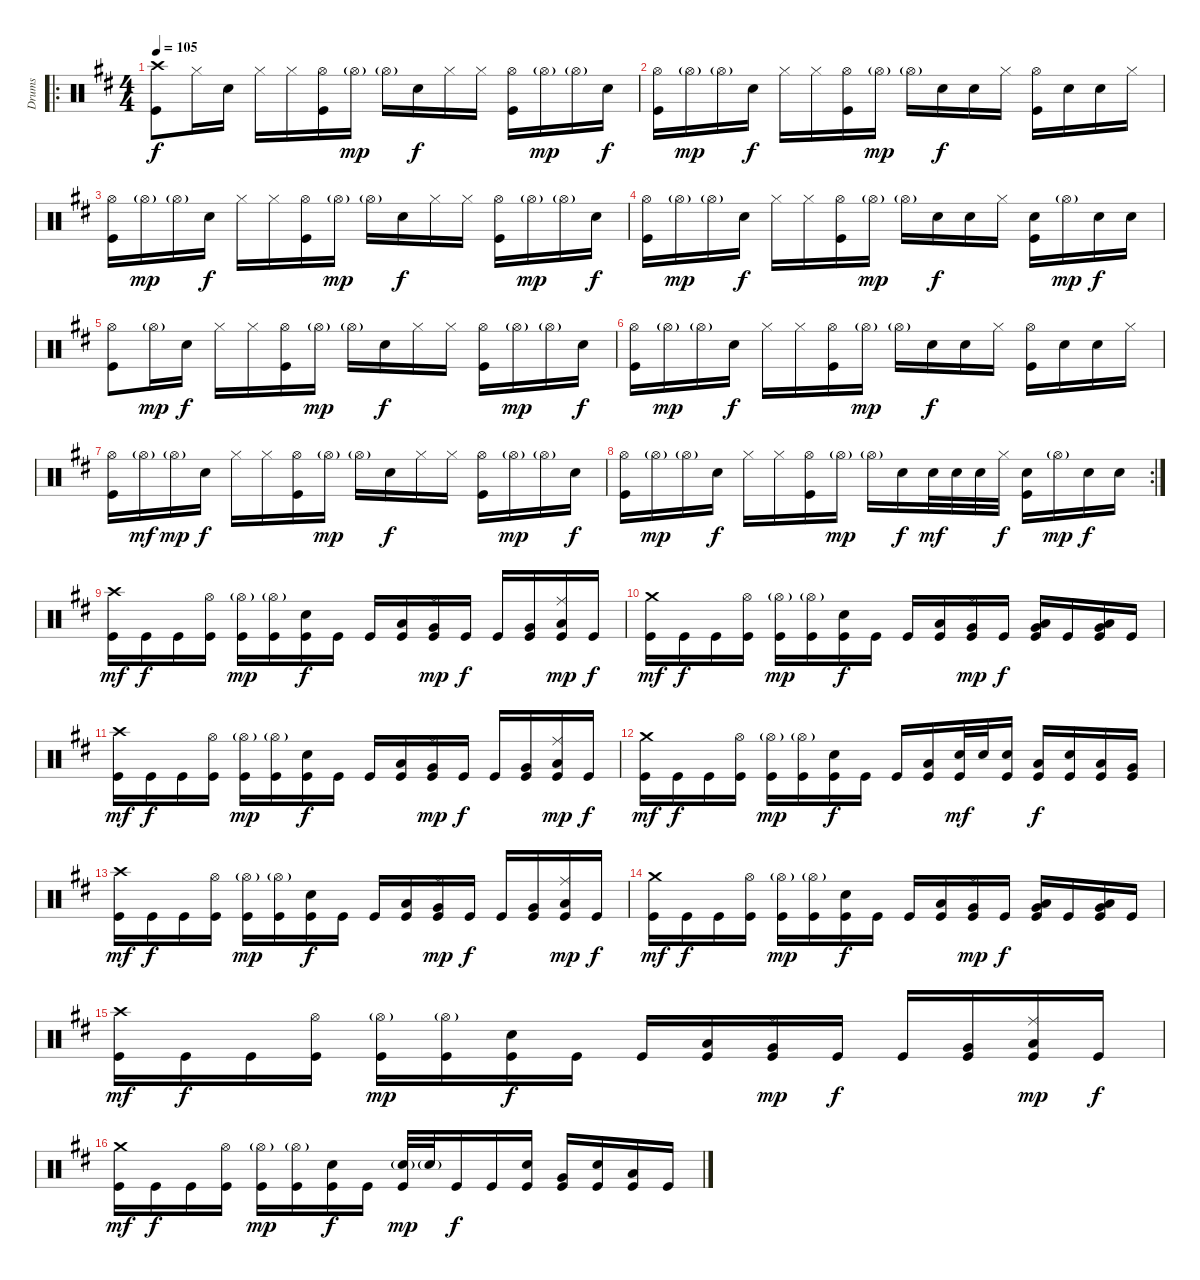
\track ("Drums" "Drums") {instrument percussion}
\staff {score}
\articulation defaults
\ro
\ts (4 4)
\tempo 105
\clef neutral
\ks d
("Crash high (hit)" "Kick (hit)").8{dy f} "Hi-Hat (closed)".16 "Electric Snare (hit)".16 "Hi-Hat (closed)".16 "Hi-Hat (closed)".16 ("Hi-Hat (open)" "Kick (hit)").16 "Hi-Hat (open)"{g}.16{dy mp} "Hi-Hat (open)"{g}.16 "Electric Snare (hit)".16{dy f} "Hi-Hat (closed)".16 "Hi-Hat (closed)".16 ("Hi-Hat (open)" "Kick (hit)").16 "Hi-Hat (open)"{g}.16{dy mp} "Hi-Hat (open)"{g}.16 "Electric Snare (hit)".16{dy f} |
("Hi-Hat (open)" "Kick (hit)").16 "Hi-Hat (open)"{g}.16{dy mp} "Hi-Hat (open)"{g}.16 "Electric Snare (hit)".16{dy f} "Hi-Hat (closed)".16 "Hi-Hat (closed)".16 ("Hi-Hat (open)" "Kick (hit)").16 "Hi-Hat (open)"{g}.16{dy mp} "Hi-Hat (open)"{g}.16 "Electric Snare (hit)".16{dy f} "Electric Snare (hit)".16 "Hi-Hat (closed)".16 ("Hi-Hat (open)" "Kick (hit)").16 "Electric Snare (hit)".16 "Electric Snare (hit)".16 "Hi-Hat (closed)".16 |
("Hi-Hat (open)" "Kick (hit)").16 "Hi-Hat (open)"{g}.16{dy mp} "Hi-Hat (open)"{g}.16 "Electric Snare (hit)".16{dy f} "Hi-Hat (closed)".16 "Hi-Hat (closed)".16 ("Hi-Hat (open)" "Kick (hit)").16 "Hi-Hat (open)"{g}.16{dy mp} "Hi-Hat (open)"{g}.16 "Electric Snare (hit)".16{dy f} "Hi-Hat (closed)".16 "Hi-Hat (closed)".16 ("Hi-Hat (open)" "Kick (hit)").16 "Hi-Hat (open)"{g}.16{dy mp} "Hi-Hat (open)"{g}.16 "Electric Snare (hit)".16{dy f} |
("Hi-Hat (open)" "Kick (hit)").16 "Hi-Hat (open)"{g}.16{dy mp} "Hi-Hat (open)"{g}.16 "Electric Snare (hit)".16{dy f} "Hi-Hat (closed)".16 "Hi-Hat (closed)".16 ("Hi-Hat (open)" "Kick (hit)").16 "Hi-Hat (open)"{g}.16{dy mp} "Hi-Hat (open)"{g}.16 "Electric Snare (hit)".16{dy f} "Electric Snare (hit)".16 "Hi-Hat (closed)".16 ("Electric Snare (hit)" "Kick (hit)").16 "Hi-Hat (open)"{g}.16{dy mp} "Electric Snare (hit)".16{dy f} "Electric Snare (hit)".16 |
("Hi-Hat (open)" "Kick (hit)").8 "Hi-Hat (open)"{g}.16{dy mp} "Electric Snare (hit)".16{dy f} "Hi-Hat (closed)".16 "Hi-Hat (closed)".16 ("Hi-Hat (open)" "Kick (hit)").16 "Hi-Hat (open)"{g}.16{dy mp} "Hi-Hat (open)"{g}.16 "Electric Snare (hit)".16{dy f} "Hi-Hat (closed)".16 "Hi-Hat (closed)".16 ("Hi-Hat (open)" "Kick (hit)").16 "Hi-Hat (open)"{g}.16{dy mp} "Hi-Hat (open)"{g}.16 "Electric Snare (hit)".16{dy f} |
("Hi-Hat (open)" "Kick (hit)").16 "Hi-Hat (open)"{g}.16{dy mp} "Hi-Hat (open)"{g}.16 "Electric Snare (hit)".16{dy f} "Hi-Hat (closed)".16 "Hi-Hat (closed)".16 ("Hi-Hat (open)" "Kick (hit)").16 "Hi-Hat (open)"{g}.16{dy mp} "Hi-Hat (open)"{g}.16 "Electric Snare (hit)".16{dy f} "Electric Snare (hit)".16 "Hi-Hat (closed)".16 ("Hi-Hat (open)" "Kick (hit)").16 "Electric Snare (hit)".16 "Electric Snare (hit)".16 "Hi-Hat (closed)".16 |
("Hi-Hat (open)" "Kick (hit)").16 "Hi-Hat (open)"{g}.16{dy mf} "Hi-Hat (open)"{g}.16{dy mp} "Electric Snare (hit)".16{dy f} "Hi-Hat (closed)".16 "Hi-Hat (closed)".16 ("Hi-Hat (open)" "Kick (hit)").16 "Hi-Hat (open)"{g}.16{dy mp} "Hi-Hat (open)"{g}.16 "Electric Snare (hit)".16{dy f} "Hi-Hat (closed)".16 "Hi-Hat (closed)".16 ("Hi-Hat (open)" "Kick (hit)").16 "Hi-Hat (open)"{g}.16{dy mp} "Hi-Hat (open)"{g}.16 "Electric Snare (hit)".16{dy f} |
\rc 2
("Hi-Hat (open)" "Kick (hit)").16 "Hi-Hat (open)"{g}.16{dy mp} "Hi-Hat (open)"{g}.16 "Electric Snare (hit)".16{dy f} "Hi-Hat (closed)".16 "Hi-Hat (closed)".16 ("Hi-Hat (open)" "Kick (hit)").16 "Hi-Hat (open)"{g}.16{dy mp} "Hi-Hat (open)"{g}.16 "Electric Snare (hit)".16{dy f} "Electric Snare (hit)".32{dy mf} "Electric Snare (hit)".32 "Electric Snare (hit)".32 "Hi-Hat (closed)".32{dy f} ("Electric Snare (hit)" "Kick (hit)").16 "Hi-Hat (open)"{g}.16{dy mp} "Electric Snare (hit)".16{dy f} "Electric Snare (hit)".16 |
("Crash high (hit)" "Kick (hit)").16{dy mf} "Kick (hit)".16{dy f} "Kick (hit)".16 ("Hi-Hat (open)" "Kick (hit)").16 ("Hi-Hat (open)"{g} "Kick (hit)").16{dy mp} ("Hi-Hat (open)"{g} "Kick (hit)").16 ("Electric Snare (hit)" "Kick (hit)").16{dy f} "Kick (hit)".16 "Kick (hit)".16 ("Low Tom (hit)" "Kick (hit)").16 ("Ride (middle)" "Very Low Tom (hit)" "Kick (hit)").16{dy mp} "Kick (hit)".16{dy f} "Kick (hit)".16 ("Very Low Tom (hit)" "Kick (hit)").16 ("Ride (middle)" "Low Floor Tom (hit)" "Kick (hit)").16{dy mp} "Kick (hit)".16{dy f} |
("Crash medium (hit)" "Kick (hit)").16{dy mf} "Kick (hit)".16{dy f} "Kick (hit)".16 ("Hi-Hat (open)" "Kick (hit)").16 ("Hi-Hat (open)"{g} "Kick (hit)").16{dy mp} ("Hi-Hat (open)"{g} "Kick (hit)").16 ("Electric Snare (hit)" "Kick (hit)").16{dy f} "Kick (hit)".16 "Kick (hit)".16 ("Low Tom (hit)" "Kick (hit)").16 ("Ride (middle)" "Very Low Tom (hit)" "Kick (hit)").16{dy mp} "Kick (hit)".16{dy f} ("Very Low Tom (hit)" "Low Floor Tom (hit)" "Kick (hit)").16 "Kick (hit)".16 ("Very Low Tom (hit)" "Low Floor Tom (hit)" "Kick (hit)").16 "Kick (hit)".16 |
("Crash high (hit)" "Kick (hit)").16{dy mf} "Kick (hit)".16{dy f} "Kick (hit)".16 ("Hi-Hat (open)" "Kick (hit)").16 ("Hi-Hat (open)"{g} "Kick (hit)").16{dy mp} ("Hi-Hat (open)"{g} "Kick (hit)").16 ("Electric Snare (hit)" "Kick (hit)").16{dy f} "Kick (hit)".16 "Kick (hit)".16 ("Low Tom (hit)" "Kick (hit)").16 ("Ride (middle)" "Very Low Tom (hit)" "Kick (hit)").16{dy mp} "Kick (hit)".16{dy f} "Kick (hit)".16 ("Very Low Tom (hit)" "Kick (hit)").16 ("Ride (middle)" "Low Floor Tom (hit)" "Kick (hit)").16{dy mp} "Kick (hit)".16{dy f} |
("Crash medium (hit)" "Kick (hit)").16{dy mf} "Kick (hit)".16{dy f} "Kick (hit)".16 ("Hi-Hat (open)" "Kick (hit)").16 ("Hi-Hat (open)"{g} "Kick (hit)").16{dy mp} ("Hi-Hat (open)"{g} "Kick (hit)").16 ("Electric Snare (hit)" "Kick (hit)").16{dy f} "Kick (hit)".16 "Kick (hit)".16 ("Low Tom (hit)" "Kick (hit)").16 ("Electric Snare (hit)" "Kick (hit)").32{dy mf} "Electric Snare (hit)".32 ("Electric Snare (hit)" "Kick (hit)").16 ("Low Tom (hit)" "Kick (hit)").16{dy f} ("Electric Snare (hit)" "Kick (hit)").16 ("Low Tom (hit)" "Kick (hit)").16 ("Very Low Tom (hit)" "Kick (hit)").16 |
("Crash high (hit)" "Kick (hit)").16{dy mf} "Kick (hit)".16{dy f} "Kick (hit)".16 ("Hi-Hat (open)" "Kick (hit)").16 ("Hi-Hat (open)"{g} "Kick (hit)").16{dy mp} ("Hi-Hat (open)"{g} "Kick (hit)").16 ("Electric Snare (hit)" "Kick (hit)").16{dy f} "Kick (hit)".16 "Kick (hit)".16 ("Low Tom (hit)" "Kick (hit)").16 ("Ride (middle)" "Very Low Tom (hit)" "Kick (hit)").16{dy mp} "Kick (hit)".16{dy f} "Kick (hit)".16 ("Very Low Tom (hit)" "Kick (hit)").16 ("Ride (middle)" "Low Floor Tom (hit)" "Kick (hit)").16{dy mp} "Kick (hit)".16{dy f} |
("Crash medium (hit)" "Kick (hit)").16{dy mf} "Kick (hit)".16{dy f} "Kick (hit)".16 ("Hi-Hat (open)" "Kick (hit)").16 ("Hi-Hat (open)"{g} "Kick (hit)").16{dy mp} ("Hi-Hat (open)"{g} "Kick (hit)").16 ("Electric Snare (hit)" "Kick (hit)").16{dy f} "Kick (hit)".16 "Kick (hit)".16 ("Low Tom (hit)" "Kick (hit)").16 ("Ride (middle)" "Very Low Tom (hit)" "Kick (hit)").16{dy mp} "Kick (hit)".16{dy f} ("Very Low Tom (hit)" "Low Floor Tom (hit)" "Kick (hit)").16 "Kick (hit)".16 ("Very Low Tom (hit)" "Low Floor Tom (hit)" "Kick (hit)").16 "Kick (hit)".16 |
("Crash high (hit)" "Kick (hit)").16{dy mf} "Kick (hit)".16{dy f} "Kick (hit)".16 ("Hi-Hat (open)" "Kick (hit)").16 ("Hi-Hat (open)"{g} "Kick (hit)").16{dy mp} ("Hi-Hat (open)"{g} "Kick (hit)").16 ("Electric Snare (hit)" "Kick (hit)").16{dy f} "Kick (hit)".16 "Kick (hit)".16 ("Low Tom (hit)" "Kick (hit)").16 ("Ride (middle)" "Very Low Tom (hit)" "Kick (hit)").16{dy mp} "Kick (hit)".16{dy f} "Kick (hit)".16 ("Very Low Tom (hit)" "Kick (hit)").16 ("Ride (middle)" "Low Floor Tom (hit)" "Kick (hit)").16{dy mp} "Kick (hit)".16{dy f} |
("Crash medium (hit)" "Kick (hit)").16{dy mf} "Kick (hit)".16{dy f} "Kick (hit)".16 ("Hi-Hat (open)" "Kick (hit)").16 ("Hi-Hat (open)"{g} "Kick (hit)").16{dy mp} ("Hi-Hat (open)"{g} "Kick (hit)").16 ("Electric Snare (hit)" "Kick (hit)").16{dy f} "Kick (hit)".16 ("Electric Snare (hit)"{g} "Kick (hit)").32{dy mp} "Electric Snare (hit)"{g}.32 "Kick (hit)".16{dy f} "Kick (hit)".16 ("Electric Snare (hit)" "Kick (hit)").16 ("Very Low Tom (hit)" "Kick (hit)").16 ("Electric Snare (hit)" "Kick (hit)").16 ("Low Floor Tom (hit)" "Kick (hit)").16 "Kick (hit)".16
